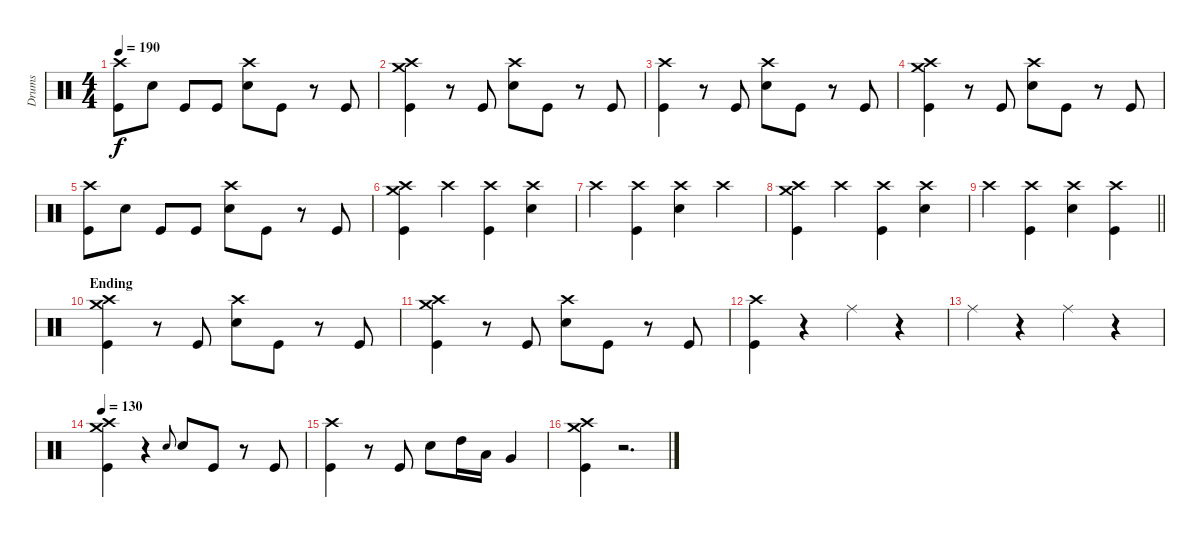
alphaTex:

\track ("Drums" "Drums") {instrument percussion}
\staff {score}
\articulation defaults
\ts (4 4)
\tempo 190
\clef neutral
\ks c
("Crash high (hit)" "Kick (hit)").8{dy f} "Snare (hit) 2".8 "Kick (hit)".8 "Kick (hit)".8 ("Crash high (hit)" "Snare (hit) 2").8 "Kick (hit)".8 r.8 "Kick (hit)".8 |
("Crash high (hit)" "Crash medium (hit)" "Kick (hit)").4 r.8 "Kick (hit)".8 ("Crash high (hit)" "Snare (hit) 2").8 "Kick (hit)".8 r.8 "Kick (hit)".8 |
("Crash high (hit)" "Kick (hit)").4 r.8 "Kick (hit)".8 ("Crash high (hit)" "Snare (hit) 2").8 "Kick (hit)".8 r.8 "Kick (hit)".8 |
("Crash high (hit)" "Crash medium (hit)" "Kick (hit)").4 r.8 "Kick (hit)".8 ("Crash high (hit)" "Snare (hit) 2").8 "Kick (hit)".8 r.8 "Kick (hit)".8 |
("Crash high (hit)" "Kick (hit)").8 "Snare (hit) 2".8 "Kick (hit)".8 "Kick (hit)".8 ("Crash high (hit)" "Snare (hit) 2").8 "Kick (hit)".8 r.8 "Kick (hit)".8 |
("Crash high (hit)" "Crash medium (hit)" "Kick (hit)").4 "Crash high (hit)".4 ("Crash high (hit)" "Kick (hit)").4 ("Crash high (hit)" "Snare (hit) 2").4 |
"Crash high (hit)".4 ("Crash high (hit)" "Kick (hit)").4 ("Crash high (hit)" "Snare (hit) 2").4 "Crash high (hit)".4 |
("Crash high (hit)" "Crash medium (hit)" "Kick (hit)").4 "Crash high (hit)".4 ("Crash high (hit)" "Kick (hit)").4 ("Crash high (hit)" "Snare (hit) 2").4 |
\barLineRight lightlight "Crash high (hit)".4
("Crash high (hit)" "Kick (hit)").4 ("Crash high (hit)" "Snare (hit) 2").4 ("Crash high (hit)" "Kick (hit)").4 |
\section ("" "Ending")
("Crash high (hit)" "Crash medium (hit)" "Kick (hit)").4 r.8 "Kick (hit)".8 ("Crash high (hit)" "Snare (hit) 2").8 "Kick (hit)".8 r.8 "Kick (hit)".8 |
("Crash high (hit)" "Crash medium (hit)" "Kick (hit)").4 r.8 "Kick (hit)".8 ("Crash high (hit)" "Snare (hit) 2").8 "Kick (hit)".8 r.8 "Kick (hit)".8 |
("Crash high (hit)" "Kick (hit)").4 r.4 "Ride (middle)".4 r.4 |
"Ride (middle)".4 r.4 "Ride (middle)".4 r.4 |
\tempo 130
("Crash high (hit)" "Crash medium (hit)" "Kick (hit)").4 r.4 "Snare (hit) 2".8{gr onbeat} "Snare (hit) 2".8 "Kick (hit)".8 r.8 "Kick (hit)".8 |
("Crash high (hit)" "Kick (hit)").4 r.8 "Kick (hit)".8 "Snare (hit) 2".8 "High Tom (hit)".16 "Low Tom (hit)".16 "Very Low Tom (hit)".4 |
("Crash high (hit)" "Crash medium (hit)" "Kick (hit)").4 r.2{d}
